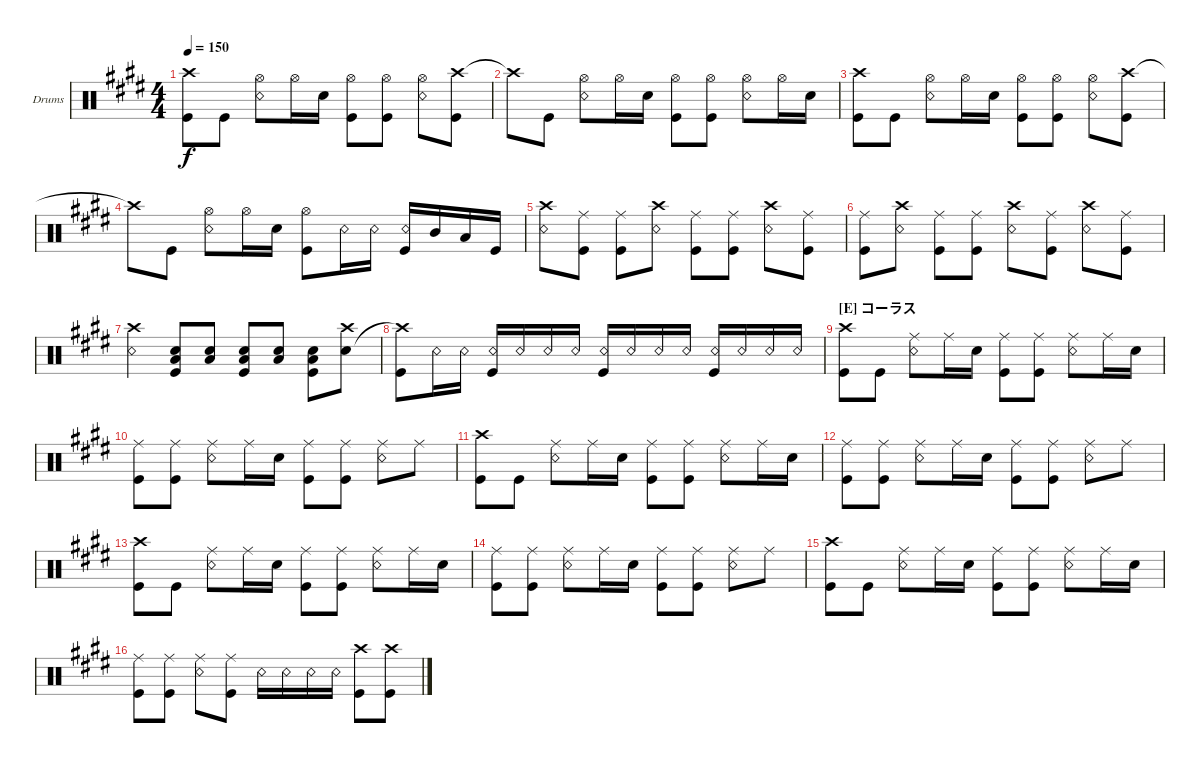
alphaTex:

\bracketExtendMode groupsimilarinstruments
\firstSystemTrackNameOrientation horizontal
\otherSystemsTrackNameOrientation horizontal
\track ("Ichigo" "Drums") {instrument percussion}
\staff {score}
\articulation defaults
\ts (4 4)
\tempo 150
\clef neutral
\ks e
("Crash high (hit)" "Kick (hit)").8{dy f} "Kick (hit)".8 ("Snare (rim shot)" "Hi-Hat (open)").8 "Hi-Hat (open)".16 "Snare (hit) 2".16 ("Hi-Hat (open)" "Kick (hit)").8 ("Hi-Hat (open)" "Kick (hit)").8 ("Hi-Hat (open)" "Snare (rim shot)").8 ("Crash high (hit)" "Kick (hit)").8 |
"Crash high (hit)"{t}.8 "Kick (hit)".8 ("Snare (rim shot)" "Hi-Hat (open)").8 "Hi-Hat (open)".16 "Snare (hit) 2".16 ("Hi-Hat (open)" "Kick (hit)").8 ("Hi-Hat (open)" "Kick (hit)").8 ("Hi-Hat (open)" "Snare (rim shot)").8 "Hi-Hat (open)".16 "Snare (hit) 2".16 |
("Crash high (hit)" "Kick (hit)").8 "Kick (hit)".8 ("Snare (rim shot)" "Hi-Hat (open)").8 "Hi-Hat (open)".16 "Snare (hit) 2".16 ("Hi-Hat (open)" "Kick (hit)").8 ("Hi-Hat (open)" "Kick (hit)").8 ("Hi-Hat (open)" "Snare (rim shot)").8 ("Crash high (hit)" "Kick (hit)").8 |
"Crash high (hit)"{t}.8 "Kick (hit)".8 ("Snare (rim shot)" "Hi-Hat (open)").8 "Hi-Hat (open)".16 "Snare (hit) 2".16 ("Hi-Hat (open)" "Kick (hit)").8 "Snare (rim shot)".16 "Snare (rim shot)".16 ("Snare (rim shot)" "Kick (hit)").16 "Mid Tom (hit)".16 "Low Tom (hit)".16 "Kick (hit)".16 |
("Snare (rim shot)" "Crash high (hit)").8 ("Kick (hit)" "Ride (middle)").8 ("Kick (hit)" "Ride (middle)").8 ("Snare (rim shot)" "Crash high (hit)").8 ("Kick (hit)" "Ride (middle)").8 ("Kick (hit)" "Ride (middle)").8 ("Snare (rim shot)" "Crash high (hit)").8 ("Kick (hit)" "Ride (middle)").8 |
("Kick (hit)" "Ride (middle)").8 ("Snare (rim shot)" "Crash high (hit)").8 ("Kick (hit)" "Ride (middle)").8 ("Kick (hit)" "Ride (middle)").8 ("Snare (rim shot)" "Crash high (hit)").8 ("Kick (hit)" "Ride (middle)").8 ("Snare (rim shot)" "Crash high (hit)").8 ("Kick (hit)" "Ride (middle)").8 |
("Snare (rim shot)" "Crash high (hit)").4 ("Snare (hit) 2" "Low Tom (hit)" "Kick (hit)").8 ("Snare (hit) 2" "Low Tom (hit)").8 ("Snare (hit) 2" "Low Tom (hit)" "Kick (hit)").8 ("Snare (hit) 2" "Low Tom (hit)").8 ("Snare (hit) 2" "Low Tom (hit)" "Kick (hit)").8 ("Snare (hit) 2" "Crash high (hit)").8 |
("Crash high (hit)"{t} "Kick (hit)").8 "Snare (rim shot)".16 "Snare (rim shot)".16 ("Snare (rim shot)" "Kick (hit)").16 "Snare (rim shot)".16 "Snare (rim shot)".16 "Snare (rim shot)".16 ("Snare (rim shot)" "Kick (hit)").16 "Snare (rim shot)".16 "Snare (rim shot)".16 "Snare (rim shot)".16 ("Snare (rim shot)" "Kick (hit)").16 "Snare (rim shot)".16 "Snare (rim shot)".16 "Snare (rim shot)".16 |
\section ("E" "コーラス")
("Crash high (hit)" "Kick (hit)").8 "Kick (hit)".8 ("Snare (rim shot)" "Ride (middle)").8 "Ride (middle)".16 "Snare (hit) 2".16 ("Kick (hit)" "Ride (middle)").8 ("Kick (hit)" "Ride (middle)").8 ("Snare (rim shot)" "Ride (middle)").8 "Ride (middle)".16 "Snare (hit) 2".16 |
("Kick (hit)" "Ride (middle)").8 ("Kick (hit)" "Ride (middle)").8 ("Snare (rim shot)" "Ride (middle)").8 "Ride (middle)".16 "Snare (hit) 2".16 ("Kick (hit)" "Ride (middle)").8 ("Kick (hit)" "Ride (middle)").8 ("Snare (rim shot)" "Ride (middle)").8 "Ride (middle)".8 |
("Crash high (hit)" "Kick (hit)").8 "Kick (hit)".8 ("Snare (rim shot)" "Ride (middle)").8 "Ride (middle)".16 "Snare (hit) 2".16 ("Kick (hit)" "Ride (middle)").8 ("Kick (hit)" "Ride (middle)").8 ("Snare (rim shot)" "Ride (middle)").8 "Ride (middle)".16 "Snare (hit) 2".16 |
("Kick (hit)" "Ride (middle)").8 ("Kick (hit)" "Ride (middle)").8 ("Snare (rim shot)" "Ride (middle)").8 "Ride (middle)".16 "Snare (hit) 2".16 ("Kick (hit)" "Ride (middle)").8 ("Kick (hit)" "Ride (middle)").8 ("Snare (rim shot)" "Ride (middle)").8 "Ride (middle)".8 |
("Crash high (hit)" "Kick (hit)").8 "Kick (hit)".8 ("Snare (rim shot)" "Ride (middle)").8 "Ride (middle)".16 "Snare (hit) 2".16 ("Kick (hit)" "Ride (middle)").8 ("Kick (hit)" "Ride (middle)").8 ("Snare (rim shot)" "Ride (middle)").8 "Ride (middle)".16 "Snare (hit) 2".16 |
("Kick (hit)" "Ride (middle)").8 ("Kick (hit)" "Ride (middle)").8 ("Snare (rim shot)" "Ride (middle)").8 "Ride (middle)".16 "Snare (hit) 2".16 ("Kick (hit)" "Ride (middle)").8 ("Kick (hit)" "Ride (middle)").8 ("Snare (rim shot)" "Ride (middle)").8 "Ride (middle)".8 |
("Crash high (hit)" "Kick (hit)").8 "Kick (hit)".8 ("Snare (rim shot)" "Ride (middle)").8 "Ride (middle)".16 "Snare (hit) 2".16 ("Kick (hit)" "Ride (middle)").8 ("Kick (hit)" "Ride (middle)").8 ("Snare (rim shot)" "Ride (middle)").8 "Ride (middle)".16 "Snare (hit) 2".16 |
("Kick (hit)" "Ride (middle)").8 ("Kick (hit)" "Ride (middle)").8 ("Snare (rim shot)" "Ride (middle)").8 ("Ride (middle)" "Kick (hit)").8 "Snare (rim shot)".16 "Snare (rim shot)".16 "Snare (rim shot)".16 "Snare (rim shot)".16 ("Kick (hit)" "Crash high (hit)").8 ("Kick (hit)" "Crash high (hit)").8
